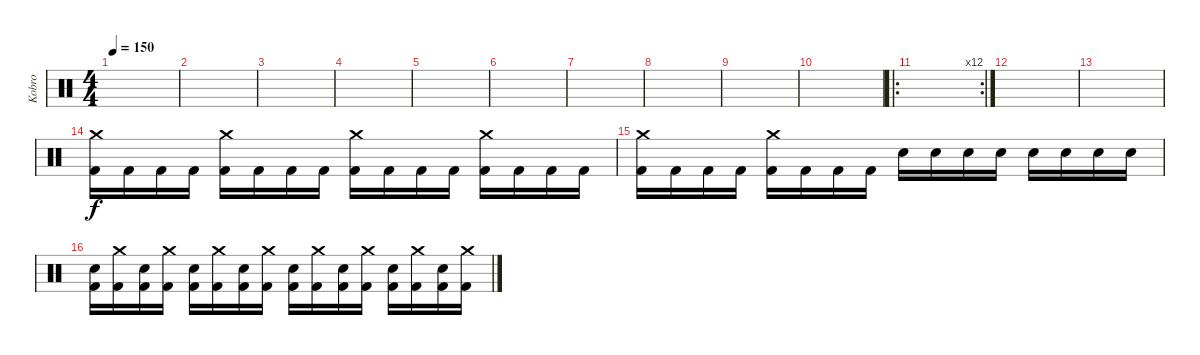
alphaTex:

\track ("Kobro" "Kobro") {instrument percussion}
\staff {score}
\articulation defaults
\ts (4 4)
\tempo 150
\clef neutral
\ks c
|
|
|
|
|
|
|
|
|
|
\ro
\rc 12
|
|
|
("Kick (hit) 2" "Crash medium (hit)").16 "Kick (hit) 2".16 "Kick (hit) 2".16 "Kick (hit) 2".16 ("Kick (hit) 2" "Crash medium (hit)").16 "Kick (hit) 2".16 "Kick (hit) 2".16 "Kick (hit) 2".16 ("Kick (hit) 2" "Crash medium (hit)").16 "Kick (hit) 2".16 "Kick (hit) 2".16 "Kick (hit) 2".16 ("Kick (hit) 2" "Crash medium (hit)").16 "Kick (hit) 2".16 "Kick (hit) 2".16 "Kick (hit) 2".16 |
("Kick (hit) 2" "Crash medium (hit)").16 "Kick (hit) 2".16 "Kick (hit) 2".16 "Kick (hit) 2".16 ("Kick (hit) 2" "Crash medium (hit)").16 "Kick (hit) 2".16 "Kick (hit) 2".16 "Kick (hit) 2".16 "Electric Snare (hit)".16 "Electric Snare (hit)".16 "Electric Snare (hit)".16 "Electric Snare (hit)".16 "Electric Snare (hit)".16 "Electric Snare (hit)".16 "Electric Snare (hit)".16 "Electric Snare (hit)".16 |
("Kick (hit) 2" "Snare (hit) 2").16 ("Kick (hit) 2" "Crash medium (hit)").16 ("Kick (hit) 2" "Snare (hit) 2").16 ("Kick (hit) 2" "Crash medium (hit)").16 ("Kick (hit) 2" "Snare (hit) 2").16 ("Kick (hit) 2" "Crash medium (hit)").16 ("Kick (hit) 2" "Snare (hit) 2").16 ("Kick (hit) 2" "Crash medium (hit)").16 ("Kick (hit) 2" "Snare (hit) 2").16 ("Kick (hit) 2" "Crash medium (hit)").16 ("Kick (hit) 2" "Snare (hit) 2").16 ("Kick (hit) 2" "Crash medium (hit)").16 ("Kick (hit) 2" "Snare (hit) 2").16 ("Kick (hit) 2" "Crash medium (hit)").16 ("Kick (hit) 2" "Snare (hit) 2").16 ("Kick (hit) 2" "Crash medium (hit)").16
